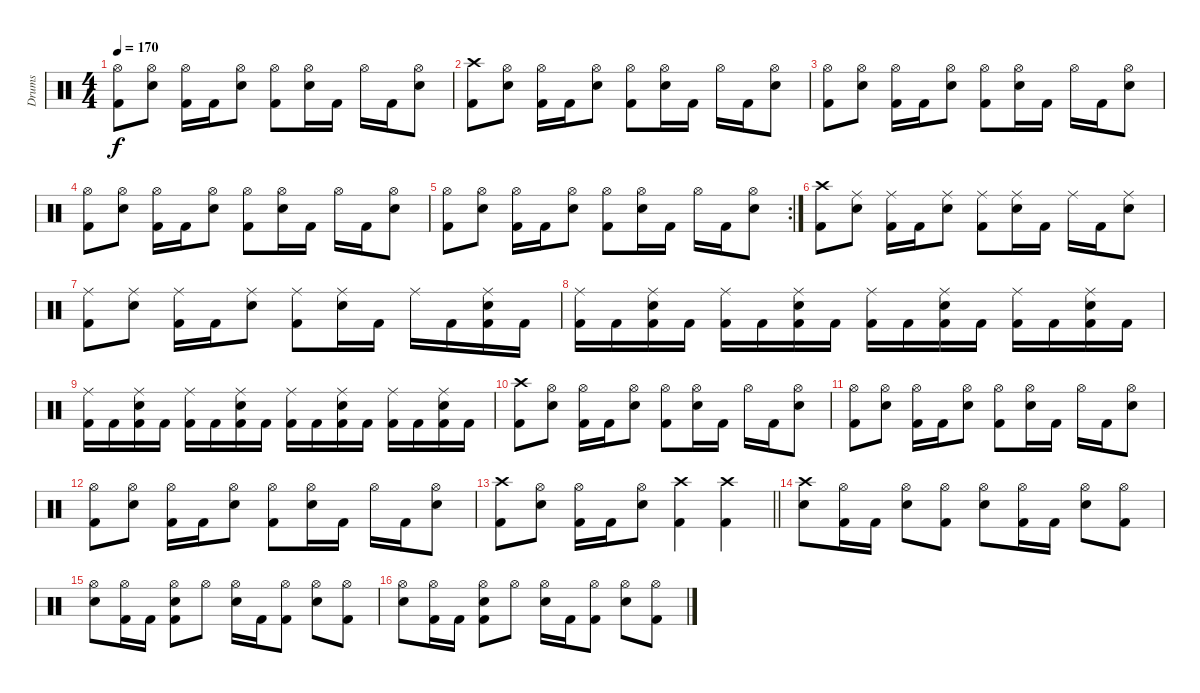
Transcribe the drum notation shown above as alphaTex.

\track ("Drums" "Drums") {instrument percussion}
\staff {score}
\articulation defaults
\ts (4 4)
\tempo 170
\clef neutral
\ks c
("Hi-Hat (open)" "Kick (hit) 2").8{dy f} ("Hi-Hat (open)" "Snare (hit) 2").8 ("Hi-Hat (open)" "Kick (hit) 2").16 "Kick (hit) 2".16 ("Hi-Hat (open)" "Snare (hit) 2").8 ("Hi-Hat (open)" "Kick (hit) 2").8 ("Hi-Hat (open)" "Snare (hit) 2").16 "Kick (hit) 2".16 "Hi-Hat (open)".16 "Kick (hit) 2".16 ("Hi-Hat (open)" "Snare (hit) 2").8 |
("Crash high (hit)" "Kick (hit) 2").8 ("Hi-Hat (open)" "Snare (hit) 2").8 ("Hi-Hat (open)" "Kick (hit) 2").16 "Kick (hit) 2".16 ("Hi-Hat (open)" "Snare (hit) 2").8 ("Hi-Hat (open)" "Kick (hit) 2").8 ("Hi-Hat (open)" "Snare (hit) 2").16 "Kick (hit) 2".16 "Hi-Hat (open)".16 "Kick (hit) 2".16 ("Hi-Hat (open)" "Snare (hit) 2").8 |
("Hi-Hat (open)" "Kick (hit) 2").8 ("Hi-Hat (open)" "Snare (hit) 2").8 ("Hi-Hat (open)" "Kick (hit) 2").16 "Kick (hit) 2".16 ("Hi-Hat (open)" "Snare (hit) 2").8 ("Hi-Hat (open)" "Kick (hit) 2").8 ("Hi-Hat (open)" "Snare (hit) 2").16 "Kick (hit) 2".16 "Hi-Hat (open)".16 "Kick (hit) 2".16 ("Hi-Hat (open)" "Snare (hit) 2").8 |
("Hi-Hat (open)" "Kick (hit) 2").8 ("Hi-Hat (open)" "Snare (hit) 2").8 ("Hi-Hat (open)" "Kick (hit) 2").16 "Kick (hit) 2".16 ("Hi-Hat (open)" "Snare (hit) 2").8 ("Hi-Hat (open)" "Kick (hit) 2").8 ("Hi-Hat (open)" "Snare (hit) 2").16 "Kick (hit) 2".16 "Hi-Hat (open)".16 "Kick (hit) 2".16 ("Hi-Hat (open)" "Snare (hit) 2").8 |
\rc 2
("Hi-Hat (open)" "Kick (hit) 2").8 ("Hi-Hat (open)" "Snare (hit) 2").8 ("Hi-Hat (open)" "Kick (hit) 2").16 "Kick (hit) 2".16 ("Hi-Hat (open)" "Snare (hit) 2").8 ("Hi-Hat (open)" "Kick (hit) 2").8 ("Hi-Hat (open)" "Snare (hit) 2").16 "Kick (hit) 2".16 "Hi-Hat (open)".16 "Kick (hit) 2".16 ("Hi-Hat (open)" "Snare (hit) 2").8 |
("Crash high (hit)" "Kick (hit) 2").8 ("Ride (middle)" "Snare (hit) 2").8 ("Ride (middle)" "Kick (hit) 2").16 "Kick (hit) 2".16 ("Ride (middle)" "Snare (hit) 2").8 ("Ride (middle)" "Kick (hit) 2").8 ("Ride (middle)" "Snare (hit) 2").16 "Kick (hit) 2".16 "Ride (middle)".16 "Kick (hit) 2".16 ("Ride (middle)" "Snare (hit) 2").8 |
("Ride (middle)" "Kick (hit) 2").8 ("Ride (middle)" "Snare (hit) 2").8 ("Ride (middle)" "Kick (hit) 2").16 "Kick (hit) 2".16 ("Ride (middle)" "Snare (hit) 2").8 ("Ride (middle)" "Kick (hit) 2").8 ("Ride (middle)" "Snare (hit) 2").16 "Kick (hit) 2".16 "Ride (middle)".16 "Kick (hit) 2".16 ("Ride (middle)" "Snare (hit) 2" "Kick (hit) 2").16 "Kick (hit) 2".16 |
("Ride (middle)" "Kick (hit) 2").16 "Kick (hit) 2".16 ("Ride (middle)" "Snare (hit) 2" "Kick (hit) 2").16 "Kick (hit) 2".16 ("Ride (middle)" "Kick (hit) 2").16 "Kick (hit) 2".16 ("Ride (middle)" "Snare (hit) 2" "Kick (hit) 2").16 "Kick (hit) 2".16 ("Ride (middle)" "Kick (hit) 2").16 "Kick (hit) 2".16 ("Ride (middle)" "Snare (hit) 2" "Kick (hit) 2").16 "Kick (hit) 2".16 ("Ride (middle)" "Kick (hit) 2").16 "Kick (hit) 2".16 ("Ride (middle)" "Snare (hit) 2" "Kick (hit) 2").16 "Kick (hit) 2".16 |
("Ride (middle)" "Kick (hit) 2").16 "Kick (hit) 2".16 ("Ride (middle)" "Snare (hit) 2" "Kick (hit) 2").16 "Kick (hit) 2".16 ("Ride (middle)" "Kick (hit) 2").16 "Kick (hit) 2".16 ("Ride (middle)" "Snare (hit) 2" "Kick (hit) 2").16 "Kick (hit) 2".16 ("Ride (middle)" "Kick (hit) 2").16 "Kick (hit) 2".16 ("Ride (middle)" "Snare (hit) 2" "Kick (hit) 2").16 "Kick (hit) 2".16 ("Ride (middle)" "Kick (hit) 2").16 "Kick (hit) 2".16 ("Ride (middle)" "Snare (hit) 2" "Kick (hit) 2").16 "Kick (hit) 2".16 |
("Crash high (hit)" "Kick (hit) 2").8 ("Hi-Hat (open)" "Snare (hit) 2").8 ("Hi-Hat (open)" "Kick (hit) 2").16 "Kick (hit) 2".16 ("Hi-Hat (open)" "Snare (hit) 2").8 ("Hi-Hat (open)" "Kick (hit) 2").8 ("Hi-Hat (open)" "Snare (hit) 2").16 "Kick (hit) 2".16 "Hi-Hat (open)".16 "Kick (hit) 2".16 ("Hi-Hat (open)" "Snare (hit) 2").8 |
("Hi-Hat (open)" "Kick (hit) 2").8 ("Hi-Hat (open)" "Snare (hit) 2").8 ("Hi-Hat (open)" "Kick (hit) 2").16 "Kick (hit) 2".16 ("Hi-Hat (open)" "Snare (hit) 2").8 ("Hi-Hat (open)" "Kick (hit) 2").8 ("Hi-Hat (open)" "Snare (hit) 2").16 "Kick (hit) 2".16 "Hi-Hat (open)".16 "Kick (hit) 2".16 ("Hi-Hat (open)" "Snare (hit) 2").8 |
("Hi-Hat (open)" "Kick (hit) 2").8 ("Hi-Hat (open)" "Snare (hit) 2").8 ("Hi-Hat (open)" "Kick (hit) 2").16 "Kick (hit) 2".16 ("Hi-Hat (open)" "Snare (hit) 2").8 ("Hi-Hat (open)" "Kick (hit) 2").8 ("Hi-Hat (open)" "Snare (hit) 2").16 "Kick (hit) 2".16 "Hi-Hat (open)".16 "Kick (hit) 2".16 ("Hi-Hat (open)" "Snare (hit) 2").8 |
\barLineRight lightlight
("Crash high (hit)" "Kick (hit) 2").8 ("Hi-Hat (open)" "Snare (hit) 2").8 ("Hi-Hat (open)" "Kick (hit) 2").16 "Kick (hit) 2".16 ("Hi-Hat (open)" "Snare (hit) 2").8 ("Crash high (hit)" "Kick (hit) 2").4 ("Crash high (hit)" "Kick (hit) 2").4 |
("Crash high (hit)" "Snare (hit) 2").8 ("Hi-Hat (open)" "Kick (hit) 2").16 "Kick (hit) 2".16 ("Hi-Hat (open)" "Snare (hit) 2").8 ("Hi-Hat (open)" "Kick (hit) 2").8 ("Hi-Hat (open)" "Snare (hit) 2").8 ("Hi-Hat (open)" "Kick (hit) 2").16 "Kick (hit) 2".16 ("Hi-Hat (open)" "Snare (hit) 2").8 ("Hi-Hat (open)" "Kick (hit) 2").8 |
("Hi-Hat (open)" "Snare (hit) 2").8 ("Hi-Hat (open)" "Kick (hit) 2").16 "Kick (hit) 2".16 ("Hi-Hat (open)" "Snare (hit) 2" "Kick (hit) 2").8 "Hi-Hat (open)".8 ("Hi-Hat (open)" "Snare (hit) 2").16 "Kick (hit) 2".16 ("Hi-Hat (open)" "Kick (hit) 2").8 ("Hi-Hat (open)" "Snare (hit) 2").8 ("Hi-Hat (open)" "Kick (hit) 2").8 |
("Hi-Hat (open)" "Snare (hit) 2").8 ("Hi-Hat (open)" "Kick (hit) 2").16 "Kick (hit) 2".16 ("Hi-Hat (open)" "Snare (hit) 2" "Kick (hit) 2").8 "Hi-Hat (open)".8 ("Hi-Hat (open)" "Snare (hit) 2").16 "Kick (hit) 2".16 ("Hi-Hat (open)" "Kick (hit) 2").8 ("Hi-Hat (open)" "Snare (hit) 2").8 ("Hi-Hat (open)" "Kick (hit) 2").8
